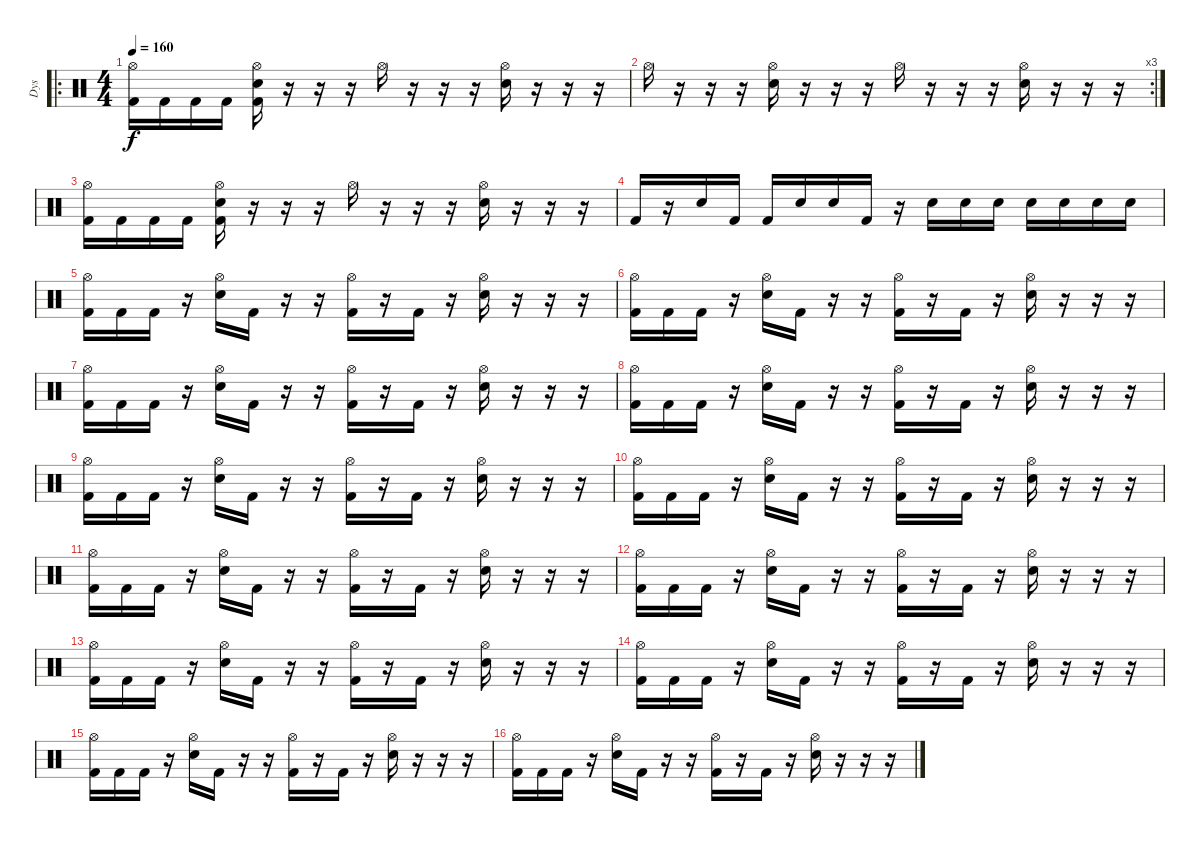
\track ("Dys" "Dys") {instrument percussion}
\staff {score}
\articulation defaults
\ro
\ts (4 4)
\tempo 160
\clef neutral
\ks c
("Hi-Hat (open)" "Kick (hit) 2").16{dy f} "Kick (hit) 2".16 "Kick (hit) 2".16 "Kick (hit) 2".16 ("Hi-Hat (open)" "Snare (hit) 2" "Kick (hit) 2").16 r.16 r.16 r.16 "Hi-Hat (open)".16 r.16 r.16 r.16 ("Hi-Hat (open)" "Snare (hit) 2").16 r.16 r.16 r.16 |
\rc 3 "Hi-Hat (open)".16
r.16 r.16 r.16 ("Hi-Hat (open)" "Snare (hit) 2").16 r.16 r.16 r.16 "Hi-Hat (open)".16 r.16 r.16 r.16 ("Hi-Hat (open)" "Snare (hit) 2").16 r.16 r.16 r.16 |
("Hi-Hat (open)" "Kick (hit) 2").16 "Kick (hit) 2".16 "Kick (hit) 2".16 "Kick (hit) 2".16 ("Hi-Hat (open)" "Snare (hit) 2" "Kick (hit) 2").16 r.16 r.16 r.16 "Hi-Hat (open)".16 r.16 r.16 r.16 ("Hi-Hat (open)" "Snare (hit) 2").16 r.16 r.16 r.16 |
"Kick (hit) 2".16 r.16 "Snare (hit) 2".16 "Kick (hit) 2".16 "Kick (hit) 2".16 "Snare (hit) 2".16 "Snare (hit) 2".16 "Kick (hit) 2".16 r.16 "Snare (hit) 2".16 "Snare (hit) 2".16 "Snare (hit) 2".16 "Snare (hit) 2".16 "Snare (hit) 2".16 "Snare (hit) 2".16 "Snare (hit) 2".16 |
("Hi-Hat (open)" "Kick (hit) 2").16 "Kick (hit) 2".16 "Kick (hit) 2".16 r.16 ("Hi-Hat (open)" "Snare (hit) 2").16 "Kick (hit) 2".16 r.16 r.16 ("Hi-Hat (open)" "Kick (hit) 2").16 r.16 "Kick (hit) 2".16 r.16 ("Hi-Hat (open)" "Snare (hit) 2").16 r.16 r.16 r.16 |
("Hi-Hat (open)" "Kick (hit) 2").16 "Kick (hit) 2".16 "Kick (hit) 2".16 r.16 ("Hi-Hat (open)" "Snare (hit) 2").16 "Kick (hit) 2".16 r.16 r.16 ("Hi-Hat (open)" "Kick (hit) 2").16 r.16 "Kick (hit) 2".16 r.16 ("Hi-Hat (open)" "Snare (hit) 2").16 r.16 r.16 r.16 |
("Hi-Hat (open)" "Kick (hit) 2").16 "Kick (hit) 2".16 "Kick (hit) 2".16 r.16 ("Hi-Hat (open)" "Snare (hit) 2").16 "Kick (hit) 2".16 r.16 r.16 ("Hi-Hat (open)" "Kick (hit) 2").16 r.16 "Kick (hit) 2".16 r.16 ("Hi-Hat (open)" "Snare (hit) 2").16 r.16 r.16 r.16 |
("Hi-Hat (open)" "Kick (hit) 2").16 "Kick (hit) 2".16 "Kick (hit) 2".16 r.16 ("Hi-Hat (open)" "Snare (hit) 2").16 "Kick (hit) 2".16 r.16 r.16 ("Hi-Hat (open)" "Kick (hit) 2").16 r.16 "Kick (hit) 2".16 r.16 ("Hi-Hat (open)" "Snare (hit) 2").16 r.16 r.16 r.16 |
("Hi-Hat (open)" "Kick (hit) 2").16 "Kick (hit) 2".16 "Kick (hit) 2".16 r.16 ("Hi-Hat (open)" "Snare (hit) 2").16 "Kick (hit) 2".16 r.16 r.16 ("Hi-Hat (open)" "Kick (hit) 2").16 r.16 "Kick (hit) 2".16 r.16 ("Hi-Hat (open)" "Snare (hit) 2").16 r.16 r.16 r.16 |
("Hi-Hat (open)" "Kick (hit) 2").16 "Kick (hit) 2".16 "Kick (hit) 2".16 r.16 ("Hi-Hat (open)" "Snare (hit) 2").16 "Kick (hit) 2".16 r.16 r.16 ("Hi-Hat (open)" "Kick (hit) 2").16 r.16 "Kick (hit) 2".16 r.16 ("Hi-Hat (open)" "Snare (hit) 2").16 r.16 r.16 r.16 |
("Hi-Hat (open)" "Kick (hit) 2").16 "Kick (hit) 2".16 "Kick (hit) 2".16 r.16 ("Hi-Hat (open)" "Snare (hit) 2").16 "Kick (hit) 2".16 r.16 r.16 ("Hi-Hat (open)" "Kick (hit) 2").16 r.16 "Kick (hit) 2".16 r.16 ("Hi-Hat (open)" "Snare (hit) 2").16 r.16 r.16 r.16 |
("Hi-Hat (open)" "Kick (hit) 2").16 "Kick (hit) 2".16 "Kick (hit) 2".16 r.16 ("Hi-Hat (open)" "Snare (hit) 2").16 "Kick (hit) 2".16 r.16 r.16 ("Hi-Hat (open)" "Kick (hit) 2").16 r.16 "Kick (hit) 2".16 r.16 ("Hi-Hat (open)" "Snare (hit) 2").16 r.16 r.16 r.16 |
("Hi-Hat (open)" "Kick (hit) 2").16 "Kick (hit) 2".16 "Kick (hit) 2".16 r.16 ("Hi-Hat (open)" "Snare (hit) 2").16 "Kick (hit) 2".16 r.16 r.16 ("Hi-Hat (open)" "Kick (hit) 2").16 r.16 "Kick (hit) 2".16 r.16 ("Hi-Hat (open)" "Snare (hit) 2").16 r.16 r.16 r.16 |
("Hi-Hat (open)" "Kick (hit) 2").16 "Kick (hit) 2".16 "Kick (hit) 2".16 r.16 ("Hi-Hat (open)" "Snare (hit) 2").16 "Kick (hit) 2".16 r.16 r.16 ("Hi-Hat (open)" "Kick (hit) 2").16 r.16 "Kick (hit) 2".16 r.16 ("Hi-Hat (open)" "Snare (hit) 2").16 r.16 r.16 r.16 |
("Hi-Hat (open)" "Kick (hit) 2").16 "Kick (hit) 2".16 "Kick (hit) 2".16 r.16 ("Hi-Hat (open)" "Snare (hit) 2").16 "Kick (hit) 2".16 r.16 r.16 ("Hi-Hat (open)" "Kick (hit) 2").16 r.16 "Kick (hit) 2".16 r.16 ("Hi-Hat (open)" "Snare (hit) 2").16 r.16 r.16 r.16 |
("Hi-Hat (open)" "Kick (hit) 2").16 "Kick (hit) 2".16 "Kick (hit) 2".16 r.16 ("Hi-Hat (open)" "Snare (hit) 2").16 "Kick (hit) 2".16 r.16 r.16 ("Hi-Hat (open)" "Kick (hit) 2").16 r.16 "Kick (hit) 2".16 r.16 ("Hi-Hat (open)" "Snare (hit) 2").16 r.16 r.16 r.16
